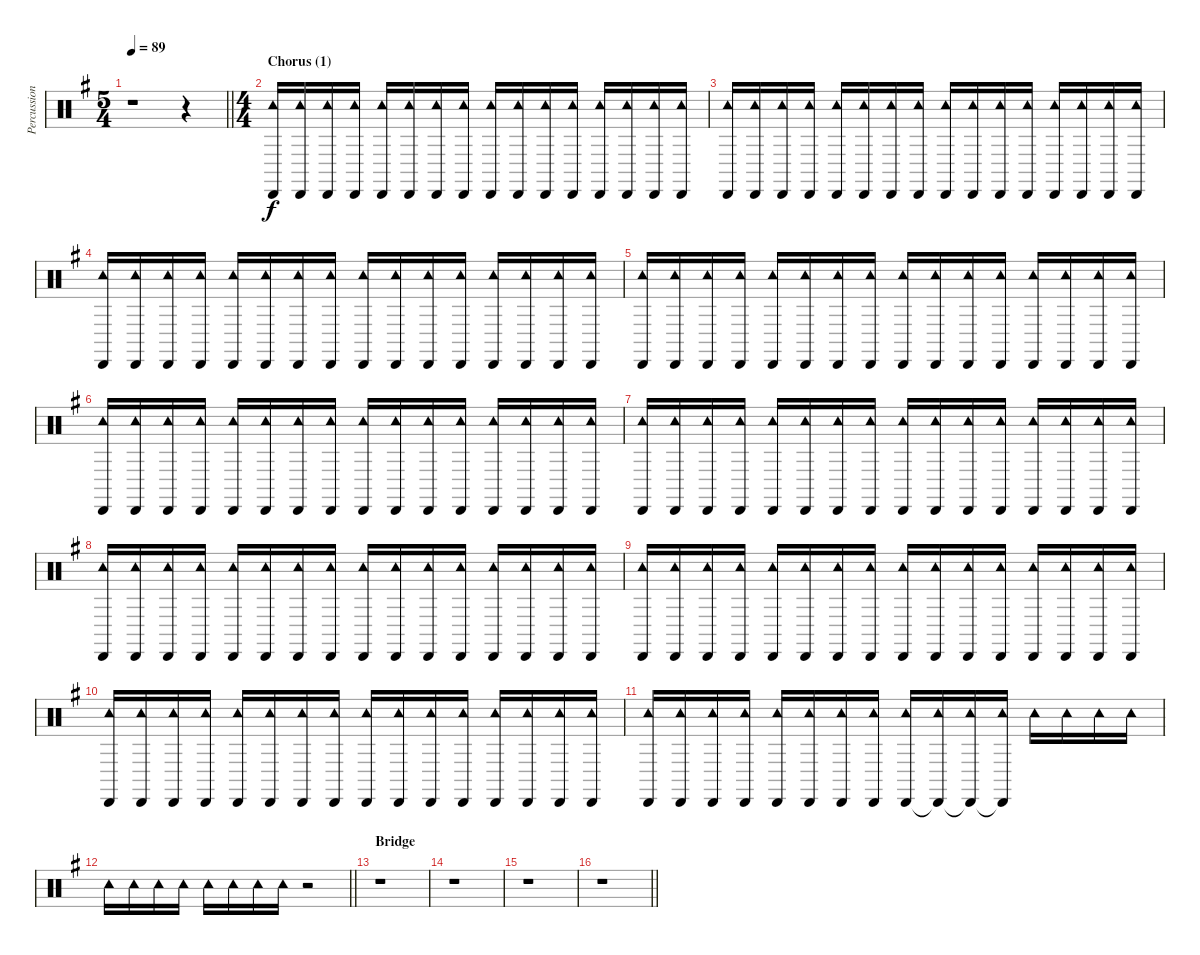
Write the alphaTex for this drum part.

\track ("Percussion" "Percussion") {instrument percussion}
\staff {score}
\articulation defaults
\ts (5 4)
\tempo 89
\clef neutral
\barLineRight lightlight
\ks g
r.1{dy f} r.4 |
\ts (4 4)
\section ("" "Chorus (1)")
("Tambourine (hit)" "Cabasa (hit)").16 ("Tambourine (hit)" "Cabasa (hit)").16 ("Tambourine (hit)" "Cabasa (hit)").16 ("Tambourine (hit)" "Cabasa (hit)").16 ("Tambourine (hit)" "Cabasa (hit)").16 ("Tambourine (hit)" "Cabasa (hit)").16 ("Tambourine (hit)" "Cabasa (hit)").16 ("Tambourine (hit)" "Cabasa (hit)").16 ("Tambourine (hit)" "Cabasa (hit)").16 ("Tambourine (hit)" "Cabasa (hit)").16 ("Tambourine (hit)" "Cabasa (hit)").16 ("Tambourine (hit)" "Cabasa (hit)").16 ("Tambourine (hit)" "Cabasa (hit)").16 ("Tambourine (hit)" "Cabasa (hit)").16 ("Tambourine (hit)" "Cabasa (hit)").16 ("Tambourine (hit)" "Cabasa (hit)").16 |
("Tambourine (hit)" "Cabasa (hit)").16 ("Tambourine (hit)" "Cabasa (hit)").16 ("Tambourine (hit)" "Cabasa (hit)").16 ("Tambourine (hit)" "Cabasa (hit)").16 ("Tambourine (hit)" "Cabasa (hit)").16 ("Tambourine (hit)" "Cabasa (hit)").16 ("Tambourine (hit)" "Cabasa (hit)").16 ("Tambourine (hit)" "Cabasa (hit)").16 ("Tambourine (hit)" "Cabasa (hit)").16 ("Tambourine (hit)" "Cabasa (hit)").16 ("Tambourine (hit)" "Cabasa (hit)").16 ("Tambourine (hit)" "Cabasa (hit)").16 ("Tambourine (hit)" "Cabasa (hit)").16 ("Tambourine (hit)" "Cabasa (hit)").16 ("Tambourine (hit)" "Cabasa (hit)").16 ("Tambourine (hit)" "Cabasa (hit)").16 |
("Tambourine (hit)" "Cabasa (hit)").16 ("Tambourine (hit)" "Cabasa (hit)").16 ("Tambourine (hit)" "Cabasa (hit)").16 ("Tambourine (hit)" "Cabasa (hit)").16 ("Tambourine (hit)" "Cabasa (hit)").16 ("Tambourine (hit)" "Cabasa (hit)").16 ("Tambourine (hit)" "Cabasa (hit)").16 ("Tambourine (hit)" "Cabasa (hit)").16 ("Tambourine (hit)" "Cabasa (hit)").16 ("Tambourine (hit)" "Cabasa (hit)").16 ("Tambourine (hit)" "Cabasa (hit)").16 ("Tambourine (hit)" "Cabasa (hit)").16 ("Tambourine (hit)" "Cabasa (hit)").16 ("Tambourine (hit)" "Cabasa (hit)").16 ("Tambourine (hit)" "Cabasa (hit)").16 ("Tambourine (hit)" "Cabasa (hit)").16 |
("Tambourine (hit)" "Cabasa (hit)").16 ("Tambourine (hit)" "Cabasa (hit)").16 ("Tambourine (hit)" "Cabasa (hit)").16 ("Tambourine (hit)" "Cabasa (hit)").16 ("Tambourine (hit)" "Cabasa (hit)").16 ("Tambourine (hit)" "Cabasa (hit)").16 ("Tambourine (hit)" "Cabasa (hit)").16 ("Tambourine (hit)" "Cabasa (hit)").16 ("Tambourine (hit)" "Cabasa (hit)").16 ("Tambourine (hit)" "Cabasa (hit)").16 ("Tambourine (hit)" "Cabasa (hit)").16 ("Tambourine (hit)" "Cabasa (hit)").16 ("Tambourine (hit)" "Cabasa (hit)").16 ("Tambourine (hit)" "Cabasa (hit)").16 ("Tambourine (hit)" "Cabasa (hit)").16 ("Tambourine (hit)" "Cabasa (hit)").16 |
("Tambourine (hit)" "Cabasa (hit)").16 ("Tambourine (hit)" "Cabasa (hit)").16 ("Tambourine (hit)" "Cabasa (hit)").16 ("Tambourine (hit)" "Cabasa (hit)").16 ("Tambourine (hit)" "Cabasa (hit)").16 ("Tambourine (hit)" "Cabasa (hit)").16 ("Tambourine (hit)" "Cabasa (hit)").16 ("Tambourine (hit)" "Cabasa (hit)").16 ("Tambourine (hit)" "Cabasa (hit)").16 ("Tambourine (hit)" "Cabasa (hit)").16 ("Tambourine (hit)" "Cabasa (hit)").16 ("Tambourine (hit)" "Cabasa (hit)").16 ("Tambourine (hit)" "Cabasa (hit)").16 ("Tambourine (hit)" "Cabasa (hit)").16 ("Tambourine (hit)" "Cabasa (hit)").16 ("Tambourine (hit)" "Cabasa (hit)").16 |
("Tambourine (hit)" "Cabasa (hit)").16 ("Tambourine (hit)" "Cabasa (hit)").16 ("Tambourine (hit)" "Cabasa (hit)").16 ("Tambourine (hit)" "Cabasa (hit)").16 ("Tambourine (hit)" "Cabasa (hit)").16 ("Tambourine (hit)" "Cabasa (hit)").16 ("Tambourine (hit)" "Cabasa (hit)").16 ("Tambourine (hit)" "Cabasa (hit)").16 ("Tambourine (hit)" "Cabasa (hit)").16 ("Tambourine (hit)" "Cabasa (hit)").16 ("Tambourine (hit)" "Cabasa (hit)").16 ("Tambourine (hit)" "Cabasa (hit)").16 ("Tambourine (hit)" "Cabasa (hit)").16 ("Tambourine (hit)" "Cabasa (hit)").16 ("Tambourine (hit)" "Cabasa (hit)").16 ("Tambourine (hit)" "Cabasa (hit)").16 |
("Tambourine (hit)" "Cabasa (hit)").16 ("Tambourine (hit)" "Cabasa (hit)").16 ("Tambourine (hit)" "Cabasa (hit)").16 ("Tambourine (hit)" "Cabasa (hit)").16 ("Tambourine (hit)" "Cabasa (hit)").16 ("Tambourine (hit)" "Cabasa (hit)").16 ("Tambourine (hit)" "Cabasa (hit)").16 ("Tambourine (hit)" "Cabasa (hit)").16 ("Tambourine (hit)" "Cabasa (hit)").16 ("Tambourine (hit)" "Cabasa (hit)").16 ("Tambourine (hit)" "Cabasa (hit)").16 ("Tambourine (hit)" "Cabasa (hit)").16 ("Tambourine (hit)" "Cabasa (hit)").16 ("Tambourine (hit)" "Cabasa (hit)").16 ("Tambourine (hit)" "Cabasa (hit)").16 ("Tambourine (hit)" "Cabasa (hit)").16 |
("Tambourine (hit)" "Cabasa (hit)").16 ("Tambourine (hit)" "Cabasa (hit)").16 ("Tambourine (hit)" "Cabasa (hit)").16 ("Tambourine (hit)" "Cabasa (hit)").16 ("Tambourine (hit)" "Cabasa (hit)").16 ("Tambourine (hit)" "Cabasa (hit)").16 ("Tambourine (hit)" "Cabasa (hit)").16 ("Tambourine (hit)" "Cabasa (hit)").16 ("Tambourine (hit)" "Cabasa (hit)").16 ("Tambourine (hit)" "Cabasa (hit)").16 ("Tambourine (hit)" "Cabasa (hit)").16 ("Tambourine (hit)" "Cabasa (hit)").16 ("Tambourine (hit)" "Cabasa (hit)").16 ("Tambourine (hit)" "Cabasa (hit)").16 ("Tambourine (hit)" "Cabasa (hit)").16 ("Tambourine (hit)" "Cabasa (hit)").16 |
("Tambourine (hit)" "Cabasa (hit)").16 ("Tambourine (hit)" "Cabasa (hit)").16 ("Tambourine (hit)" "Cabasa (hit)").16 ("Tambourine (hit)" "Cabasa (hit)").16 ("Tambourine (hit)" "Cabasa (hit)").16 ("Tambourine (hit)" "Cabasa (hit)").16 ("Tambourine (hit)" "Cabasa (hit)").16 ("Tambourine (hit)" "Cabasa (hit)").16 ("Tambourine (hit)" "Cabasa (hit)").16 ("Tambourine (hit)" "Cabasa (hit)").16 ("Tambourine (hit)" "Cabasa (hit)").16 ("Tambourine (hit)" "Cabasa (hit)").16 ("Tambourine (hit)" "Cabasa (hit)").16 ("Tambourine (hit)" "Cabasa (hit)").16 ("Tambourine (hit)" "Cabasa (hit)").16 ("Tambourine (hit)" "Cabasa (hit)").16 |
("Tambourine (hit)" "Cabasa (hit)").16 ("Tambourine (hit)" "Cabasa (hit)").16 ("Tambourine (hit)" "Cabasa (hit)").16 ("Tambourine (hit)" "Cabasa (hit)").16 ("Tambourine (hit)" "Cabasa (hit)").16 ("Tambourine (hit)" "Cabasa (hit)").16 ("Tambourine (hit)" "Cabasa (hit)").16 ("Tambourine (hit)" "Cabasa (hit)").16 ("Tambourine (hit)" "Cabasa (hit)").16 ("Tambourine (hit)" "Cabasa (hit)"{t}).16 ("Tambourine (hit)" "Cabasa (hit)"{t}).16 ("Tambourine (hit)" "Cabasa (hit)"{t}).16 "Tambourine (hit)".16 "Tambourine (hit)".16 "Tambourine (hit)".16 "Tambourine (hit)".16 |
\barLineRight lightlight "Tambourine (hit)".16 "Tambourine (hit)".16 "Tambourine (hit)".16 "Tambourine (hit)".16 "Tambourine (hit)".16 "Tambourine (hit)".16 "Tambourine (hit)".16 "Tambourine (hit)".16
r.2 |
\section ("" "Bridge")
r.1 |
r.1 |
r.1 |
\barLineRight lightlight
r.1
